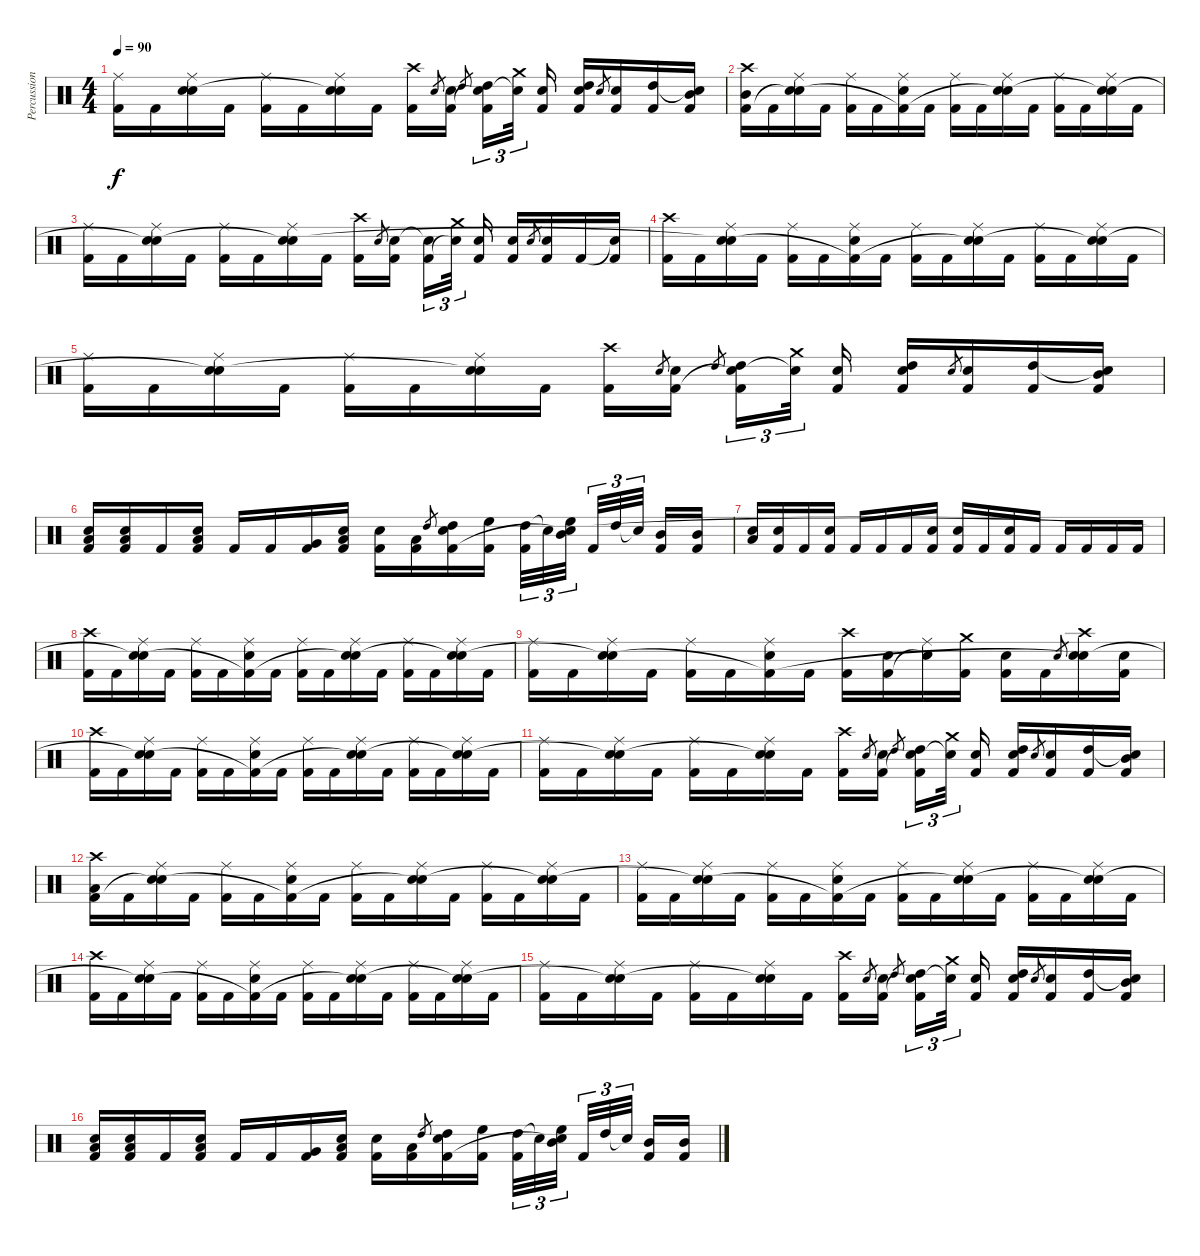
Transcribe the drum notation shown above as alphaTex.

\track ("Percussion" "Percussion") {instrument percussion}
\staff {score}
\articulation defaults
\ts (4 4)
\tempo 90
\clef neutral
\ks c
("Ride (middle)" "Kick (hit) 2").16{dy f} "Kick (hit) 2".16 ("Ride (middle)" "Electric Snare (hit)" "Snare (hit)"{t}).16 "Kick (hit) 2".16 ("Ride (middle)" "Kick (hit) 2").16 "Kick (hit) 2".16 ("Ride (middle)" "Electric Snare (hit)" "Snare (hit)"{t}).16 "Kick (hit) 2".16 ("Crash high (hit)" "Kick (hit) 2").16 "Electric Snare (hit)".8{gr} ("Electric Snare (hit)" "Kick (hit) 2").16 "High Tom (hit)".8{gr} ("High Tom (hit)" "Snare (hit)"{t} "Kick (hit) 2").16{tu (3 2)} ("Crash medium (hit)" "Snare (hit)"{t}).32{tu (3 2)} ("Electric Snare (hit)" "Kick (hit) 2").16 ("High Tom (hit)" "Electric Snare (hit)" "Kick (hit) 2").16 "Electric Snare (hit)".8{gr} ("Electric Snare (hit)" "Kick (hit) 2").16 ("High Tom (hit)" "Kick (hit) 2").16 ("Snare (hit)"{t} "Mid Tom (hit)" "Kick (hit) 2").16 |
("Mid Tom (hit)" "Crash high (hit)" "Kick (hit) 2").16 "Kick (hit) 2".16 ("Ride (middle)" "Electric Snare (hit)" "Snare (hit)"{t}).16 "Kick (hit) 2".16 ("Ride (middle)" "Kick (hit) 2").16 "Kick (hit) 2".16 ("Ride (middle)" "Electric Snare (hit)" "Kick (hit) 2"{t}).16 "Kick (hit) 2".16 ("Ride (middle)" "Kick (hit) 2").16 "Kick (hit) 2".16 ("Ride (middle)" "Electric Snare (hit)" "Snare (hit)"{t}).16 "Kick (hit) 2".16 ("Ride (middle)" "Kick (hit) 2").16 "Kick (hit) 2".16 ("Ride (middle)" "Electric Snare (hit)" "Snare (hit)"{t}).16 "Kick (hit) 2".16 |
("Ride (middle)" "Kick (hit) 2").16 "Kick (hit) 2".16 ("Ride (middle)" "Electric Snare (hit)" "Snare (hit)"{t}).16 "Kick (hit) 2".16 ("Ride (middle)" "Kick (hit) 2").16 "Kick (hit) 2".16 ("Ride (middle)" "Electric Snare (hit)" "Snare (hit)"{t}).16 "Kick (hit) 2".16 ("Crash high (hit)" "Kick (hit) 2").16 "Electric Snare (hit)".8{gr} ("Electric Snare (hit)" "Kick (hit) 2").16 ("Snare (hit)"{t} "Kick (hit) 2").16{tu (3 2)} ("Crash medium (hit)" "Snare (hit)"{t}).32{tu (3 2)} ("Electric Snare (hit)" "Kick (hit) 2").16 ("Electric Snare (hit)" "Kick (hit) 2").16 "Electric Snare (hit)".8{gr} ("Electric Snare (hit)" "Kick (hit) 2").16 "Kick (hit) 2".16 ("Snare (hit)"{t} "Kick (hit) 2").16 |
("Crash high (hit)" "Kick (hit) 2").16 "Kick (hit) 2".16 ("Ride (middle)" "Electric Snare (hit)" "Snare (hit)"{t}).16 "Kick (hit) 2".16 ("Ride (middle)" "Kick (hit) 2").16 "Kick (hit) 2".16 ("Ride (middle)" "Electric Snare (hit)" "Kick (hit) 2"{t}).16 "Kick (hit) 2".16 ("Ride (middle)" "Kick (hit) 2").16 "Kick (hit) 2".16 ("Ride (middle)" "Electric Snare (hit)" "Snare (hit)"{t}).16 "Kick (hit) 2".16 ("Ride (middle)" "Kick (hit) 2").16 "Kick (hit) 2".16 ("Ride (middle)" "Electric Snare (hit)" "Snare (hit)"{t}).16 "Kick (hit) 2".16 |
("Ride (middle)" "Kick (hit) 2").16 "Kick (hit) 2".16 ("Ride (middle)" "Electric Snare (hit)" "Snare (hit)"{t}).16 "Kick (hit) 2".16 ("Ride (middle)" "Kick (hit) 2").16 "Kick (hit) 2".16 ("Ride (middle)" "Electric Snare (hit)" "Snare (hit)"{t}).16 "Kick (hit) 2".16 ("Crash high (hit)" "Kick (hit) 2").16 "Electric Snare (hit)".8{gr} ("Electric Snare (hit)" "Kick (hit) 2").16 "High Tom (hit)".8{gr} ("High Tom (hit)" "Snare (hit)"{t} "Kick (hit) 2").16{tu (3 2)} ("Crash medium (hit)" "Snare (hit)"{t}).32{tu (3 2)} ("Electric Snare (hit)" "Kick (hit) 2").16 ("High Tom (hit)" "Electric Snare (hit)" "Kick (hit) 2").16 "Electric Snare (hit)".8{gr} ("Electric Snare (hit)" "Kick (hit) 2").16 ("High Tom (hit)" "Kick (hit) 2").16 ("Snare (hit)"{t} "Mid Tom (hit)" "Kick (hit) 2").16 |
("Low Tom (hit)" "Electric Snare (hit)" "Kick (hit) 2").16 ("Low Floor Tom (hit)" "Electric Snare (hit)" "Kick (hit) 2").16 "Kick (hit) 2".16 ("Low Floor Tom (hit)" "Electric Snare (hit)" "Kick (hit) 2").16 "Kick (hit) 2".16 "Kick (hit) 2".16 ("Very Low Tom (hit)" "Kick (hit) 2").16 ("Low Floor Tom (hit)" "Electric Snare (hit)" "Kick (hit) 2").16 ("Electric Snare (hit)" "Kick (hit) 2").16 ("Low Floor Tom (hit)" "Kick (hit) 2").16 "High Tom (hit)".8{gr} ("High Tom (hit)" "Electric Snare (hit)" "Kick (hit) 2").16 ("High Floor Tom (hit)" "Kick (hit) 2").16 ("High Tom (hit)" "Kick (hit) 2").32{tu (3 2)} "Snare (hit)"{t}.32{tu (3 2)} ("Mid Tom (hit)" "High Floor Tom (hit)" "Snare (hit)"{t}).32{tu (3 2)} "Kick (hit) 2".32{tu (3 2)} "High Tom (hit)".32{tu (3 2)} "Snare (hit)"{t}.32{tu (3 2)} ("Mid Tom (hit)" "Kick (hit) 2").16 ("Mid Tom (hit)" "Kick (hit) 2").16 |
("Electric Snare (hit)" "Low Floor Tom (hit)").16 ("Electric Snare (hit)" "Kick (hit) 2").16 "Kick (hit) 2".16 ("Electric Snare (hit)" "Kick (hit) 2").16 "Kick (hit) 2".16 "Kick (hit) 2".16 "Kick (hit) 2".16 ("Electric Snare (hit)" "Kick (hit) 2").16 ("Electric Snare (hit)" "Kick (hit) 2").16 "Kick (hit) 2".16 ("Electric Snare (hit)" "Kick (hit) 2").16 "Kick (hit) 2".16 "Kick (hit) 2".16 "Kick (hit) 2".16 "Kick (hit) 2".16 "Kick (hit) 2".16 |
("Crash high (hit)" "Kick (hit) 2").16 "Kick (hit) 2".16 ("Ride (middle)" "Electric Snare (hit)" "Snare (hit)"{t}).16 "Kick (hit) 2".16 ("Ride (middle)" "Kick (hit) 2").16 "Kick (hit) 2".16 ("Ride (middle)" "Electric Snare (hit)" "Kick (hit) 2"{t}).16 "Kick (hit) 2".16 ("Ride (middle)" "Kick (hit) 2").16 "Kick (hit) 2".16 ("Ride (middle)" "Electric Snare (hit)" "Snare (hit)"{t}).16 "Kick (hit) 2".16 ("Ride (middle)" "Kick (hit) 2").16 "Kick (hit) 2".16 ("Ride (middle)" "Electric Snare (hit)" "Snare (hit)"{t}).16 "Kick (hit) 2".16 |
("Ride (middle)" "Kick (hit) 2").16 "Kick (hit) 2".16 ("Ride (middle)" "Electric Snare (hit)" "Snare (hit)"{t}).16 "Kick (hit) 2".16 ("Ride (middle)" "Kick (hit) 2").16 "Kick (hit) 2".16 ("Ride (middle)" "Electric Snare (hit)" "Kick (hit) 2"{t}).16 "Kick (hit) 2".16 ("Crash high (hit)" "Kick (hit) 2").16 ("Electric Snare (hit)" "Kick (hit) 2").16 ("Ride (middle)" "Snare (hit)"{t}).16 ("Crash medium (hit)" "Kick (hit) 2").16 ("Electric Snare (hit)" "Kick (hit) 2").16 "Kick (hit) 2".16 "Electric Snare (hit)".8{gr} ("Crash high (hit)" "Electric Snare (hit)" "Snare (hit)"{t}).16 ("Electric Snare (hit)" "Kick (hit) 2").16 |
("Crash high (hit)" "Kick (hit) 2").16 "Kick (hit) 2".16 ("Ride (middle)" "Electric Snare (hit)" "Snare (hit)"{t}).16 "Kick (hit) 2".16 ("Ride (middle)" "Kick (hit) 2").16 "Kick (hit) 2".16 ("Ride (middle)" "Electric Snare (hit)" "Kick (hit) 2"{t}).16 "Kick (hit) 2".16 ("Ride (middle)" "Kick (hit) 2").16 "Kick (hit) 2".16 ("Ride (middle)" "Electric Snare (hit)" "Snare (hit)"{t}).16 "Kick (hit) 2".16 ("Ride (middle)" "Kick (hit) 2").16 "Kick (hit) 2".16 ("Ride (middle)" "Electric Snare (hit)" "Snare (hit)"{t}).16 "Kick (hit) 2".16 |
("Ride (middle)" "Kick (hit) 2").16 "Kick (hit) 2".16 ("Ride (middle)" "Electric Snare (hit)" "Snare (hit)"{t}).16 "Kick (hit) 2".16 ("Ride (middle)" "Kick (hit) 2").16 "Kick (hit) 2".16 ("Ride (middle)" "Electric Snare (hit)" "Snare (hit)"{t}).16 "Kick (hit) 2".16 ("Crash high (hit)" "Kick (hit) 2").16 "Electric Snare (hit)".8{gr} ("Electric Snare (hit)" "Kick (hit) 2").16 "High Tom (hit)".8{gr} ("High Tom (hit)" "Snare (hit)"{t} "Kick (hit) 2").16{tu (3 2)} ("Crash medium (hit)" "Snare (hit)"{t}).32{tu (3 2)} ("Electric Snare (hit)" "Kick (hit) 2").16 ("High Tom (hit)" "Electric Snare (hit)" "Kick (hit) 2").16 "Electric Snare (hit)".8{gr} ("Electric Snare (hit)" "Kick (hit) 2").16 ("High Tom (hit)" "Kick (hit) 2").16 ("Snare (hit)"{t} "Mid Tom (hit)" "Kick (hit) 2").16 |
("Low Tom (hit)" "Crash high (hit)" "Kick (hit) 2").16 "Kick (hit) 2".16 ("Ride (middle)" "Electric Snare (hit)" "Snare (hit)"{t}).16 "Kick (hit) 2".16 ("Ride (middle)" "Kick (hit) 2").16 "Kick (hit) 2".16 ("Ride (middle)" "Electric Snare (hit)" "Kick (hit) 2"{t}).16 "Kick (hit) 2".16 ("Ride (middle)" "Kick (hit) 2").16 "Kick (hit) 2".16 ("Ride (middle)" "Electric Snare (hit)" "Snare (hit)"{t}).16 "Kick (hit) 2".16 ("Ride (middle)" "Kick (hit) 2").16 "Kick (hit) 2".16 ("Ride (middle)" "Electric Snare (hit)" "Snare (hit)"{t}).16 "Kick (hit) 2".16 |
("Ride (middle)" "Kick (hit) 2").16 "Kick (hit) 2".16 ("Ride (middle)" "Electric Snare (hit)" "Snare (hit)"{t}).16 "Kick (hit) 2".16 ("Ride (middle)" "Kick (hit) 2").16 "Kick (hit) 2".16 ("Ride (middle)" "Electric Snare (hit)" "Kick (hit) 2"{t}).16 "Kick (hit) 2".16 ("Ride (middle)" "Kick (hit) 2").16 "Kick (hit) 2".16 ("Ride (middle)" "Electric Snare (hit)" "Snare (hit)"{t}).16 "Kick (hit) 2".16 ("Ride (middle)" "Kick (hit) 2").16 "Kick (hit) 2".16 ("Ride (middle)" "Electric Snare (hit)" "Snare (hit)"{t}).16 "Kick (hit) 2".16 |
("Crash high (hit)" "Kick (hit) 2").16 "Kick (hit) 2".16 ("Ride (middle)" "Electric Snare (hit)" "Snare (hit)"{t}).16 "Kick (hit) 2".16 ("Ride (middle)" "Kick (hit) 2").16 "Kick (hit) 2".16 ("Ride (middle)" "Electric Snare (hit)" "Kick (hit) 2"{t}).16 "Kick (hit) 2".16 ("Ride (middle)" "Kick (hit) 2").16 "Kick (hit) 2".16 ("Ride (middle)" "Electric Snare (hit)" "Snare (hit)"{t}).16 "Kick (hit) 2".16 ("Ride (middle)" "Kick (hit) 2").16 "Kick (hit) 2".16 ("Ride (middle)" "Electric Snare (hit)" "Snare (hit)"{t}).16 "Kick (hit) 2".16 |
("Ride (middle)" "Kick (hit) 2").16 "Kick (hit) 2".16 ("Ride (middle)" "Electric Snare (hit)" "Snare (hit)"{t}).16 "Kick (hit) 2".16 ("Ride (middle)" "Kick (hit) 2").16 "Kick (hit) 2".16 ("Ride (middle)" "Electric Snare (hit)" "Snare (hit)"{t}).16 "Kick (hit) 2".16 ("Crash high (hit)" "Kick (hit) 2").16 "Electric Snare (hit)".8{gr} ("Electric Snare (hit)" "Kick (hit) 2").16 "High Tom (hit)".8{gr} ("High Tom (hit)" "Snare (hit)"{t} "Kick (hit) 2").16{tu (3 2)} ("Crash medium (hit)" "Snare (hit)"{t}).32{tu (3 2)} ("Electric Snare (hit)" "Kick (hit) 2").16 ("High Tom (hit)" "Electric Snare (hit)" "Kick (hit) 2").16 "Electric Snare (hit)".8{gr} ("Electric Snare (hit)" "Kick (hit) 2").16 ("High Tom (hit)" "Kick (hit) 2").16 ("Snare (hit)"{t} "Mid Tom (hit)" "Kick (hit) 2").16 |
("Low Tom (hit)" "Electric Snare (hit)" "Kick (hit) 2").16 ("Low Floor Tom (hit)" "Electric Snare (hit)" "Kick (hit) 2").16 "Kick (hit) 2".16 ("Low Floor Tom (hit)" "Electric Snare (hit)" "Kick (hit) 2").16 "Kick (hit) 2".16 "Kick (hit) 2".16 ("Very Low Tom (hit)" "Kick (hit) 2").16 ("Low Floor Tom (hit)" "Electric Snare (hit)" "Kick (hit) 2").16 ("Electric Snare (hit)" "Kick (hit) 2").16 ("Low Floor Tom (hit)" "Kick (hit) 2").16 "High Tom (hit)".8{gr} ("High Tom (hit)" "Electric Snare (hit)" "Kick (hit) 2").16 ("High Floor Tom (hit)" "Kick (hit) 2").16 ("High Tom (hit)" "Kick (hit) 2").32{tu (3 2)} "Snare (hit)"{t}.32{tu (3 2)} ("Mid Tom (hit)" "High Floor Tom (hit)" "Snare (hit)"{t}).32{tu (3 2)} "Kick (hit) 2".32{tu (3 2)} "High Tom (hit)".32{tu (3 2)} "Snare (hit)"{t}.32{tu (3 2)} ("Mid Tom (hit)" "Kick (hit) 2").16 ("Mid Tom (hit)" "Kick (hit) 2").16
